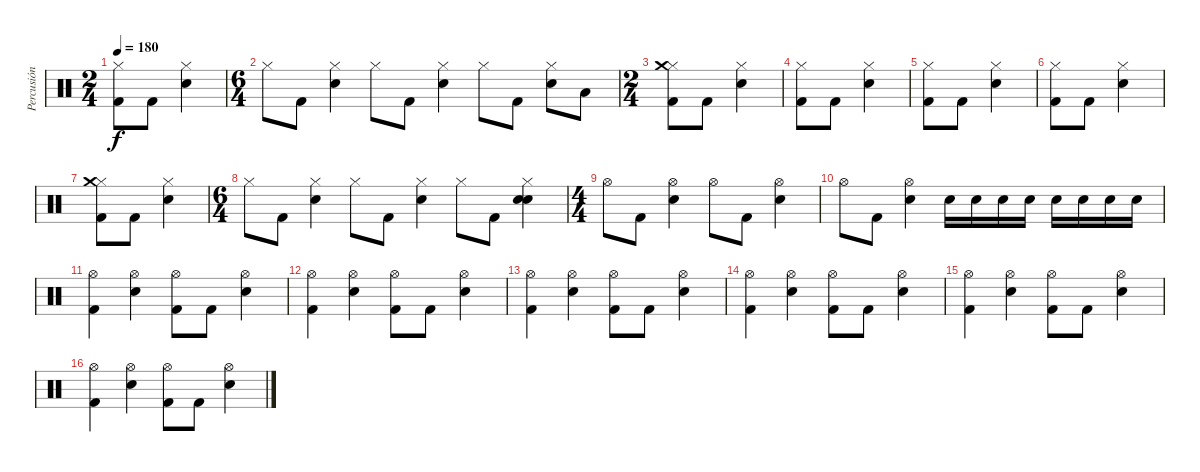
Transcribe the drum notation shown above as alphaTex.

\track ("Percusión" "Percusión") {instrument percussion}
\staff {score}
\articulation defaults
\ts (2 4)
\tempo 180
\clef neutral
\ks c
("Kick (hit) 2" "Hi-Hat (closed)").8{dy f} "Kick (hit) 2".8 ("Electric Snare (hit)" "Hi-Hat (closed)").4 |
\ts (6 4)
"Hi-Hat (closed)".8 "Kick (hit) 2".8 ("Electric Snare (hit)" "Hi-Hat (closed)").4 "Hi-Hat (closed)".8 "Kick (hit) 2".8 ("Electric Snare (hit)" "Hi-Hat (closed)").4 "Hi-Hat (closed)".8 "Kick (hit) 2".8 ("Electric Snare (hit)" "Hi-Hat (closed)").8 "Low Tom (hit)".8 |
\ts (2 4)
("Kick (hit) 2" "Hi-Hat (closed)" "Crash medium (hit)").8 "Kick (hit) 2".8 ("Electric Snare (hit)" "Hi-Hat (closed)").4 |
("Kick (hit) 2" "Hi-Hat (closed)").8 "Kick (hit) 2".8 ("Electric Snare (hit)" "Hi-Hat (closed)").4 |
("Kick (hit) 2" "Hi-Hat (closed)").8 "Kick (hit) 2".8 ("Electric Snare (hit)" "Hi-Hat (closed)").4 |
("Kick (hit) 2" "Hi-Hat (closed)").8 "Kick (hit) 2".8 ("Electric Snare (hit)" "Hi-Hat (closed)").4 |
("Kick (hit) 2" "Hi-Hat (closed)" "Crash medium (hit)").8 "Kick (hit) 2".8 ("Electric Snare (hit)" "Hi-Hat (closed)").4 |
\ts (6 4)
"Hi-Hat (closed)".8 "Kick (hit) 2".8 ("Electric Snare (hit)" "Hi-Hat (closed)").4 "Hi-Hat (closed)".8 "Kick (hit) 2".8 ("Electric Snare (hit)" "Hi-Hat (closed)").4 "Hi-Hat (closed)".8 "Kick (hit) 2".8 ("Electric Snare (hit)" "Electric Snare (hit)" "Hi-Hat (closed)").4 |
\ts (4 4)
"Hi-Hat (open)".8 "Kick (hit) 2".8 ("Electric Snare (hit)" "Hi-Hat (open)").4 "Hi-Hat (open)".8 "Kick (hit) 2".8 ("Electric Snare (hit)" "Hi-Hat (open)").4 |
"Hi-Hat (open)".8 "Kick (hit) 2".8 ("Electric Snare (hit)" "Hi-Hat (open)").4 "Electric Snare (hit)".16 "Electric Snare (hit)".16 "Electric Snare (hit)".16 "Electric Snare (hit)".16 "Electric Snare (hit)".16 "Electric Snare (hit)".16 "Electric Snare (hit)".16 "Electric Snare (hit)".16 |
("Kick (hit) 2" "Hi-Hat (open)").4 ("Electric Snare (hit)" "Hi-Hat (open)").4 ("Kick (hit) 2" "Hi-Hat (open)").8 "Kick (hit) 2".8 ("Electric Snare (hit)" "Hi-Hat (open)").4 |
("Kick (hit) 2" "Hi-Hat (open)").4 ("Electric Snare (hit)" "Hi-Hat (open)").4 ("Kick (hit) 2" "Hi-Hat (open)").8 "Kick (hit) 2".8 ("Electric Snare (hit)" "Hi-Hat (open)").4 |
("Kick (hit) 2" "Hi-Hat (open)").4 ("Electric Snare (hit)" "Hi-Hat (open)").4 ("Kick (hit) 2" "Hi-Hat (open)").8 "Kick (hit) 2".8 ("Electric Snare (hit)" "Hi-Hat (open)").4 |
("Kick (hit) 2" "Hi-Hat (open)").4 ("Electric Snare (hit)" "Hi-Hat (open)").4 ("Kick (hit) 2" "Hi-Hat (open)").8 "Kick (hit) 2".8 ("Electric Snare (hit)" "Hi-Hat (open)").4 |
("Kick (hit) 2" "Hi-Hat (open)").4 ("Electric Snare (hit)" "Hi-Hat (open)").4 ("Kick (hit) 2" "Hi-Hat (open)").8 "Kick (hit) 2".8 ("Electric Snare (hit)" "Hi-Hat (open)").4 |
("Kick (hit) 2" "Hi-Hat (open)").4 ("Electric Snare (hit)" "Hi-Hat (open)").4 ("Kick (hit) 2" "Hi-Hat (open)").8 "Kick (hit) 2".8 ("Electric Snare (hit)" "Hi-Hat (open)").4
